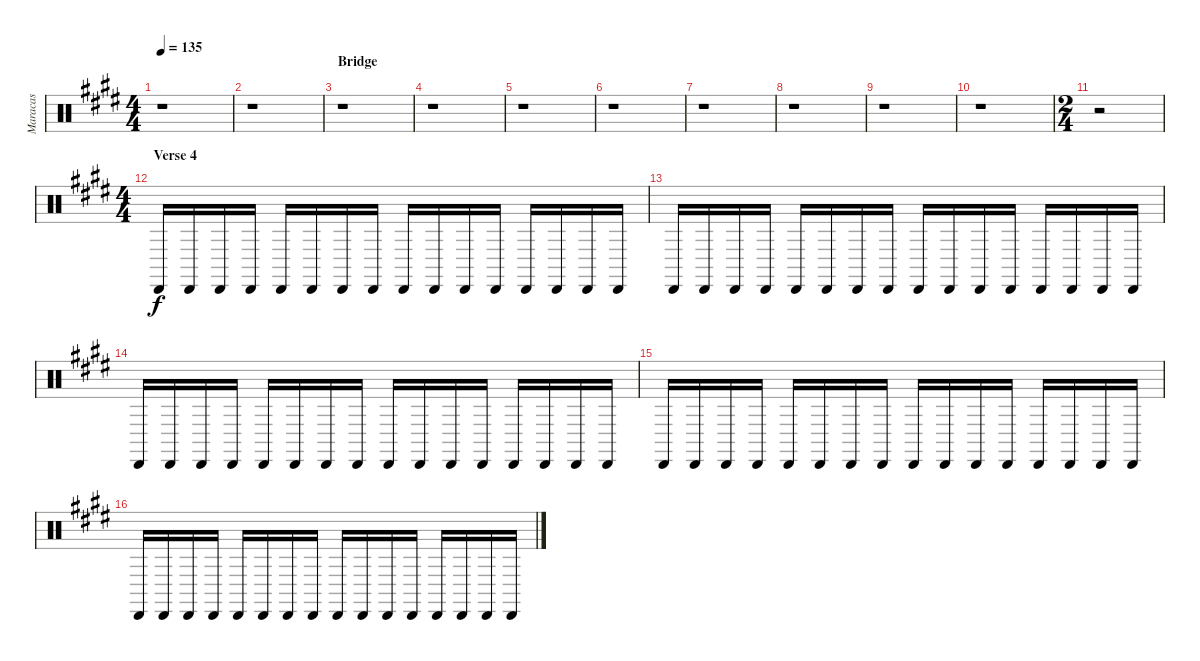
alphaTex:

\track ("Maracas" "Maracas") {instrument percussion}
\staff {score}
\articulation defaults
\ts (4 4)
\tempo 135
\clef neutral
\ks e
r.1{dy f} |
r.1 |
\section ("" "Bridge")
r.1 |
r.1 |
r.1 |
r.1 |
r.1 |
r.1 |
r.1 |
r.1 |
\ts (2 4)
r.2 |
\ts (4 4)
\section ("" "Verse 4")
"Cabasa (hit)".16 "Cabasa (hit)".16 "Cabasa (hit)".16 "Cabasa (hit)".16 "Cabasa (hit)".16 "Cabasa (hit)".16 "Cabasa (hit)".16 "Cabasa (hit)".16 "Cabasa (hit)".16 "Cabasa (hit)".16 "Cabasa (hit)".16 "Cabasa (hit)".16 "Cabasa (hit)".16 "Cabasa (hit)".16 "Cabasa (hit)".16 "Cabasa (hit)".16 |
"Cabasa (hit)".16 "Cabasa (hit)".16 "Cabasa (hit)".16 "Cabasa (hit)".16 "Cabasa (hit)".16 "Cabasa (hit)".16 "Cabasa (hit)".16 "Cabasa (hit)".16 "Cabasa (hit)".16 "Cabasa (hit)".16 "Cabasa (hit)".16 "Cabasa (hit)".16 "Cabasa (hit)".16 "Cabasa (hit)".16 "Cabasa (hit)".16 "Cabasa (hit)".16 |
"Cabasa (hit)".16 "Cabasa (hit)".16 "Cabasa (hit)".16 "Cabasa (hit)".16 "Cabasa (hit)".16 "Cabasa (hit)".16 "Cabasa (hit)".16 "Cabasa (hit)".16 "Cabasa (hit)".16 "Cabasa (hit)".16 "Cabasa (hit)".16 "Cabasa (hit)".16 "Cabasa (hit)".16 "Cabasa (hit)".16 "Cabasa (hit)".16 "Cabasa (hit)".16 |
"Cabasa (hit)".16 "Cabasa (hit)".16 "Cabasa (hit)".16 "Cabasa (hit)".16 "Cabasa (hit)".16 "Cabasa (hit)".16 "Cabasa (hit)".16 "Cabasa (hit)".16 "Cabasa (hit)".16 "Cabasa (hit)".16 "Cabasa (hit)".16 "Cabasa (hit)".16 "Cabasa (hit)".16 "Cabasa (hit)".16 "Cabasa (hit)".16 "Cabasa (hit)".16 |
"Cabasa (hit)".16 "Cabasa (hit)".16 "Cabasa (hit)".16 "Cabasa (hit)".16 "Cabasa (hit)".16 "Cabasa (hit)".16 "Cabasa (hit)".16 "Cabasa (hit)".16 "Cabasa (hit)".16 "Cabasa (hit)".16 "Cabasa (hit)".16 "Cabasa (hit)".16 "Cabasa (hit)".16 "Cabasa (hit)".16 "Cabasa (hit)".16 "Cabasa (hit)".16
